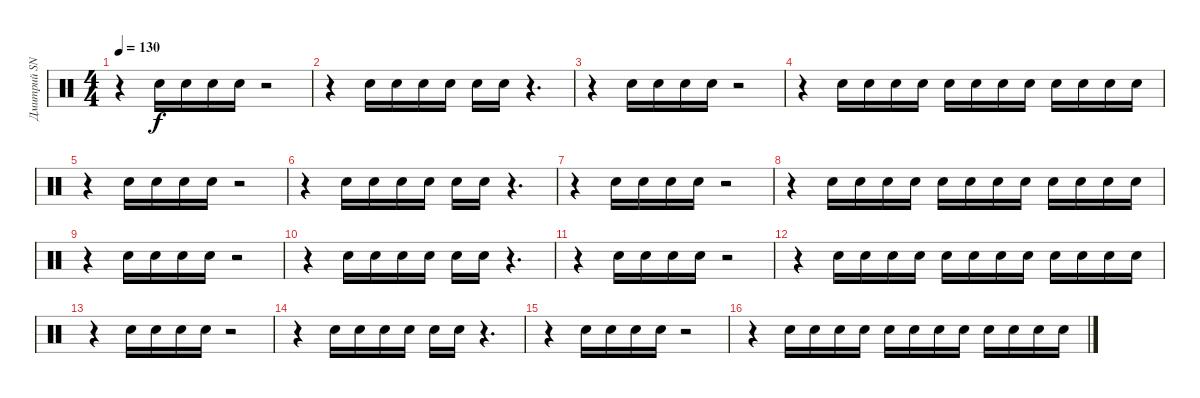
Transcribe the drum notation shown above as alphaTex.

\track ("Дмитрий SNAKE Хакимов (drum-machine)" "Дмитрий SN") {instrument percussion}
\staff {score}
\articulation defaults
\ts (4 4)
\tempo 130
\clef neutral
\ks c
r.4{dy f} "Electric Snare (hit)".16 "Electric Snare (hit)".16 "Electric Snare (hit)".16 "Electric Snare (hit)".16 r.2 |
r.4 "Electric Snare (hit)".16 "Electric Snare (hit)".16 "Electric Snare (hit)".16 "Electric Snare (hit)".16 "Electric Snare (hit)".16 "Electric Snare (hit)".16 r.4{d} |
r.4 "Electric Snare (hit)".16 "Electric Snare (hit)".16 "Electric Snare (hit)".16 "Electric Snare (hit)".16 r.2 |
r.4 "Electric Snare (hit)".16 "Electric Snare (hit)".16 "Electric Snare (hit)".16 "Electric Snare (hit)".16 "Electric Snare (hit)".16 "Electric Snare (hit)".16 "Electric Snare (hit)".16 "Electric Snare (hit)".16 "Electric Snare (hit)".16 "Electric Snare (hit)".16 "Electric Snare (hit)".16 "Electric Snare (hit)".16 |
r.4 "Electric Snare (hit)".16 "Electric Snare (hit)".16 "Electric Snare (hit)".16 "Electric Snare (hit)".16 r.2 |
r.4 "Electric Snare (hit)".16 "Electric Snare (hit)".16 "Electric Snare (hit)".16 "Electric Snare (hit)".16 "Electric Snare (hit)".16 "Electric Snare (hit)".16 r.4{d} |
r.4 "Electric Snare (hit)".16 "Electric Snare (hit)".16 "Electric Snare (hit)".16 "Electric Snare (hit)".16 r.2 |
r.4 "Electric Snare (hit)".16 "Electric Snare (hit)".16 "Electric Snare (hit)".16 "Electric Snare (hit)".16 "Electric Snare (hit)".16 "Electric Snare (hit)".16 "Electric Snare (hit)".16 "Electric Snare (hit)".16 "Electric Snare (hit)".16 "Electric Snare (hit)".16 "Electric Snare (hit)".16 "Electric Snare (hit)".16 |
r.4 "Electric Snare (hit)".16 "Electric Snare (hit)".16 "Electric Snare (hit)".16 "Electric Snare (hit)".16 r.2 |
r.4 "Electric Snare (hit)".16 "Electric Snare (hit)".16 "Electric Snare (hit)".16 "Electric Snare (hit)".16 "Electric Snare (hit)".16 "Electric Snare (hit)".16 r.4{d} |
r.4 "Electric Snare (hit)".16 "Electric Snare (hit)".16 "Electric Snare (hit)".16 "Electric Snare (hit)".16 r.2 |
r.4 "Electric Snare (hit)".16 "Electric Snare (hit)".16 "Electric Snare (hit)".16 "Electric Snare (hit)".16 "Electric Snare (hit)".16 "Electric Snare (hit)".16 "Electric Snare (hit)".16 "Electric Snare (hit)".16 "Electric Snare (hit)".16 "Electric Snare (hit)".16 "Electric Snare (hit)".16 "Electric Snare (hit)".16 |
r.4 "Electric Snare (hit)".16 "Electric Snare (hit)".16 "Electric Snare (hit)".16 "Electric Snare (hit)".16 r.2 |
r.4 "Electric Snare (hit)".16 "Electric Snare (hit)".16 "Electric Snare (hit)".16 "Electric Snare (hit)".16 "Electric Snare (hit)".16 "Electric Snare (hit)".16 r.4{d} |
r.4 "Electric Snare (hit)".16 "Electric Snare (hit)".16 "Electric Snare (hit)".16 "Electric Snare (hit)".16 r.2 |
r.4 "Electric Snare (hit)".16 "Electric Snare (hit)".16 "Electric Snare (hit)".16 "Electric Snare (hit)".16 "Electric Snare (hit)".16 "Electric Snare (hit)".16 "Electric Snare (hit)".16 "Electric Snare (hit)".16 "Electric Snare (hit)".16 "Electric Snare (hit)".16 "Electric Snare (hit)".16 "Electric Snare (hit)".16
